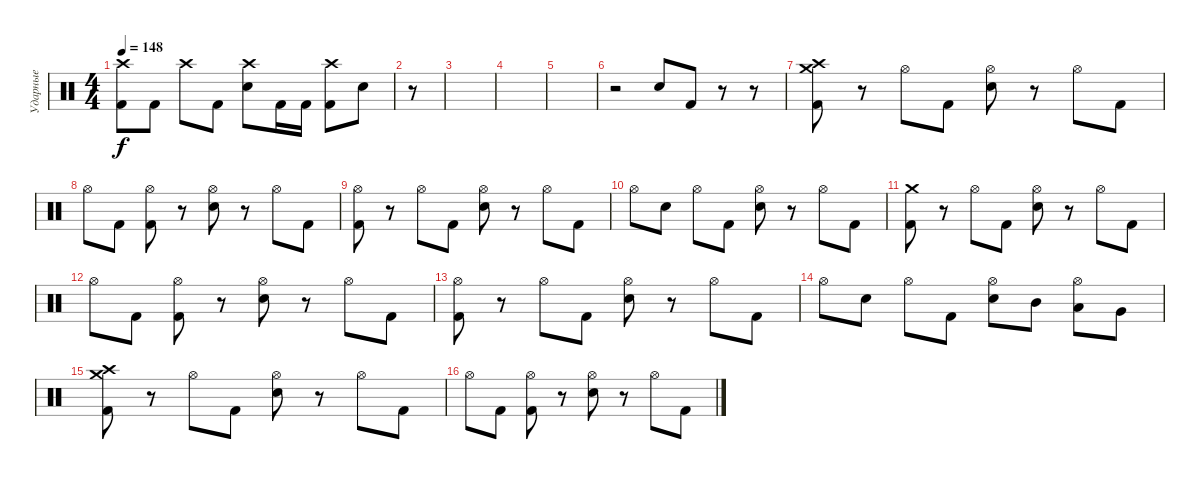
\track ("Ударные" "Ударные") {instrument percussion}
\staff {score}
\articulation defaults
\ts (4 4)
\tempo 148
\clef neutral
\ks c
("Crash high (hit)" "Kick (hit) 2").8{dy f} "Kick (hit) 2".8 "Crash high (hit)".8 "Kick (hit) 2".8 ("Crash high (hit)" "Electric Snare (hit)").8 "Kick (hit) 2".16 "Kick (hit) 2".16 ("Crash high (hit)" "Kick (hit) 2").8 "Electric Snare (hit)".8 |
r.8 |
|
|
|
r.2 "Electric Snare (hit)".8 "Kick (hit) 2".8 r.8 r.8 |
("Crash medium (hit)" "Crash high (hit)" "Kick (hit) 2").8 r.8 "Hi-Hat (open)".8 "Kick (hit) 2".8 ("Hi-Hat (open)" "Electric Snare (hit)").8 r.8 "Hi-Hat (open)".8 "Kick (hit) 2".8 |
"Hi-Hat (open)".8 "Kick (hit) 2".8 ("Hi-Hat (open)" "Kick (hit) 2").8 r.8 ("Hi-Hat (open)" "Electric Snare (hit)").8 r.8 "Hi-Hat (open)".8 "Kick (hit) 2".8 |
("Hi-Hat (open)" "Kick (hit) 2").8 r.8 "Hi-Hat (open)".8 "Kick (hit) 2".8 ("Hi-Hat (open)" "Electric Snare (hit)").8 r.8 "Hi-Hat (open)".8 "Kick (hit) 2".8 |
"Hi-Hat (open)".8 "Electric Snare (hit)".8 "Hi-Hat (open)".8 "Kick (hit) 2".8 ("Hi-Hat (open)" "Electric Snare (hit)").8 r.8 "Hi-Hat (open)".8 "Kick (hit) 2".8 |
("Crash medium (hit)" "Kick (hit) 2").8 r.8 "Hi-Hat (open)".8 "Kick (hit) 2".8 ("Hi-Hat (open)" "Electric Snare (hit)").8 r.8 "Hi-Hat (open)".8 "Kick (hit) 2".8 |
"Hi-Hat (open)".8 "Kick (hit) 2".8 ("Hi-Hat (open)" "Kick (hit) 2").8 r.8 ("Hi-Hat (open)" "Electric Snare (hit)").8 r.8 "Hi-Hat (open)".8 "Kick (hit) 2".8 |
("Hi-Hat (open)" "Kick (hit) 2").8 r.8 "Hi-Hat (open)".8 "Kick (hit) 2".8 ("Hi-Hat (open)" "Electric Snare (hit)").8 r.8 "Hi-Hat (open)".8 "Kick (hit) 2".8 |
"Hi-Hat (open)".8 "Electric Snare (hit)".8 "Hi-Hat (open)".8 "Kick (hit) 2".8 ("Hi-Hat (open)" "Electric Snare (hit)").8 "Mid Tom (hit)".8 ("Hi-Hat (open)" "Low Tom (hit)").8 "Very Low Tom (hit)".8 |
("Crash medium (hit)" "Crash high (hit)" "Kick (hit) 2").8 r.8 "Hi-Hat (open)".8 "Kick (hit) 2".8 ("Hi-Hat (open)" "Electric Snare (hit)").8 r.8 "Hi-Hat (open)".8 "Kick (hit) 2".8 |
"Hi-Hat (open)".8 "Kick (hit) 2".8 ("Hi-Hat (open)" "Kick (hit) 2").8 r.8 ("Hi-Hat (open)" "Electric Snare (hit)").8 r.8 "Hi-Hat (open)".8 "Kick (hit) 2".8
